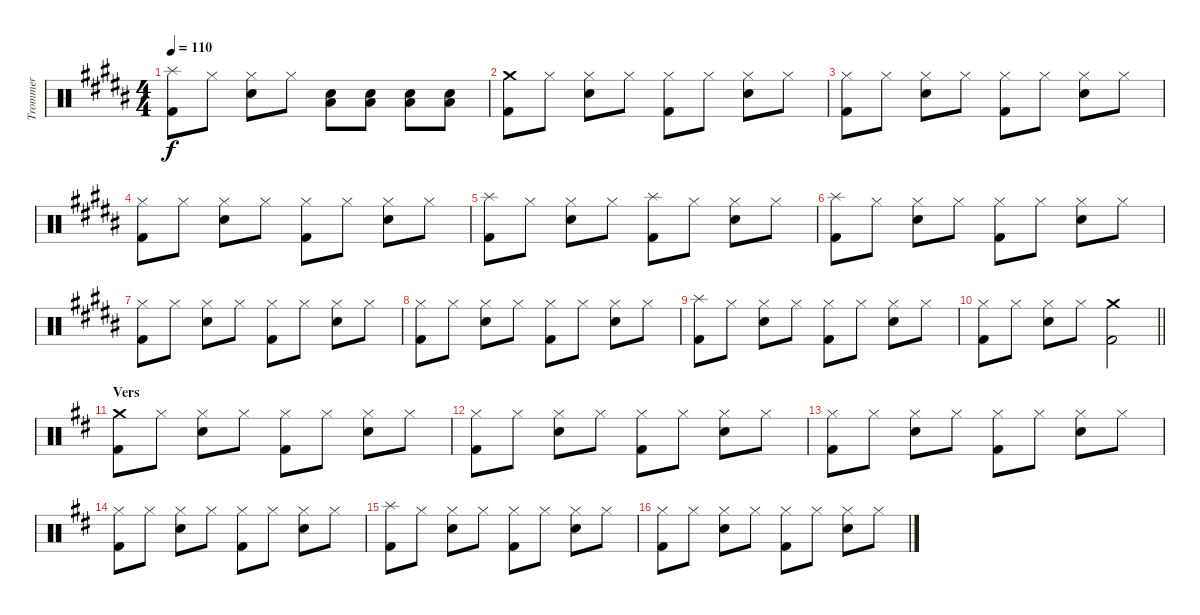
\track ("Trommer" "Trommer") {instrument percussion}
\staff {score}
\articulation defaults
\ts (4 4)
\tempo 110
\clef neutral
\ks b
("Splash (hit)" "Kick (hit) 2").8{dy f} "Hi-Hat (closed)".8 ("Hi-Hat (closed)" "Electric Snare (hit)").8 "Hi-Hat (closed)".8 ("Electric Snare (hit)" "Low Tom (hit)").8 ("Electric Snare (hit)" "Low Tom (hit)").8 ("Electric Snare (hit)" "Low Tom (hit)").8 ("Electric Snare (hit)" "Low Tom (hit)").8 |
("Crash medium (hit)" "Kick (hit) 2").8 "Hi-Hat (closed)".8 ("Hi-Hat (closed)" "Electric Snare (hit)").8 "Hi-Hat (closed)".8 ("Hi-Hat (closed)" "Kick (hit) 2").8 "Hi-Hat (closed)".8 ("Hi-Hat (closed)" "Electric Snare (hit)").8 "Hi-Hat (closed)".8 |
("Hi-Hat (closed)" "Kick (hit) 2").8 "Hi-Hat (closed)".8 ("Hi-Hat (closed)" "Electric Snare (hit)").8 "Hi-Hat (closed)".8 ("Hi-Hat (closed)" "Kick (hit) 2").8 "Hi-Hat (closed)".8 ("Hi-Hat (closed)" "Electric Snare (hit)").8 "Hi-Hat (closed)".8 |
("Hi-Hat (closed)" "Kick (hit) 2").8 "Hi-Hat (closed)".8 ("Hi-Hat (closed)" "Electric Snare (hit)").8 "Hi-Hat (closed)".8 ("Hi-Hat (closed)" "Kick (hit) 2").8 "Hi-Hat (closed)".8 ("Hi-Hat (closed)" "Electric Snare (hit)").8 "Hi-Hat (closed)".8 |
("Splash (hit)" "Kick (hit) 2").8 "Hi-Hat (closed)".8 ("Hi-Hat (closed)" "Electric Snare (hit)").8 "Hi-Hat (closed)".8 ("Splash (hit)" "Kick (hit) 2").8 "Hi-Hat (closed)".8 ("Hi-Hat (closed)" "Electric Snare (hit)").8 "Hi-Hat (closed)".8 |
("Splash (hit)" "Kick (hit) 2").8 "Hi-Hat (closed)".8 ("Hi-Hat (closed)" "Electric Snare (hit)").8 "Hi-Hat (closed)".8 ("Hi-Hat (closed)" "Kick (hit) 2").8 "Hi-Hat (closed)".8 ("Hi-Hat (closed)" "Electric Snare (hit)").8 "Hi-Hat (closed)".8 |
("Hi-Hat (closed)" "Kick (hit) 2").8 "Hi-Hat (closed)".8 ("Hi-Hat (closed)" "Electric Snare (hit)").8 "Hi-Hat (closed)".8 ("Hi-Hat (closed)" "Kick (hit) 2").8 "Hi-Hat (closed)".8 ("Hi-Hat (closed)" "Electric Snare (hit)").8 "Hi-Hat (closed)".8 |
("Hi-Hat (closed)" "Kick (hit) 2").8 "Hi-Hat (closed)".8 ("Hi-Hat (closed)" "Electric Snare (hit)").8 "Hi-Hat (closed)".8 ("Hi-Hat (closed)" "Kick (hit) 2").8 "Hi-Hat (closed)".8 ("Hi-Hat (closed)" "Electric Snare (hit)").8 "Hi-Hat (closed)".8 |
("Splash (hit)" "Kick (hit) 2").8 "Hi-Hat (closed)".8 ("Hi-Hat (closed)" "Electric Snare (hit)").8 "Hi-Hat (closed)".8 ("Hi-Hat (closed)" "Kick (hit) 2").8 "Hi-Hat (closed)".8 ("Hi-Hat (closed)" "Electric Snare (hit)").8 "Hi-Hat (closed)".8 |
\barLineRight lightlight
("Hi-Hat (closed)" "Kick (hit) 2").8 "Hi-Hat (closed)".8 ("Hi-Hat (closed)" "Electric Snare (hit)").8 "Hi-Hat (closed)".8 ("Crash medium (hit)" "Kick (hit) 2").2 |
\section ("" "Vers")
\ks d
("Crash medium (hit)" "Kick (hit) 2").8 "Hi-Hat (closed)".8 ("Hi-Hat (closed)" "Electric Snare (hit)").8 "Hi-Hat (closed)".8 ("Hi-Hat (closed)" "Kick (hit) 2").8 "Hi-Hat (closed)".8 ("Hi-Hat (closed)" "Electric Snare (hit)").8 "Hi-Hat (closed)".8 |
("Hi-Hat (closed)" "Kick (hit) 2").8 "Hi-Hat (closed)".8 ("Hi-Hat (closed)" "Electric Snare (hit)").8 "Hi-Hat (closed)".8 ("Hi-Hat (closed)" "Kick (hit) 2").8 "Hi-Hat (closed)".8 ("Hi-Hat (closed)" "Electric Snare (hit)").8 "Hi-Hat (closed)".8 |
("Hi-Hat (closed)" "Kick (hit) 2").8 "Hi-Hat (closed)".8 ("Hi-Hat (closed)" "Electric Snare (hit)").8 "Hi-Hat (closed)".8 ("Hi-Hat (closed)" "Kick (hit) 2").8 "Hi-Hat (closed)".8 ("Hi-Hat (closed)" "Electric Snare (hit)").8 "Hi-Hat (closed)".8 |
("Hi-Hat (closed)" "Kick (hit) 2").8 "Hi-Hat (closed)".8 ("Hi-Hat (closed)" "Electric Snare (hit)").8 "Hi-Hat (closed)".8 ("Hi-Hat (closed)" "Kick (hit) 2").8 "Hi-Hat (closed)".8 ("Hi-Hat (closed)" "Electric Snare (hit)").8 "Hi-Hat (closed)".8 |
("Splash (hit)" "Kick (hit) 2").8 "Hi-Hat (closed)".8 ("Hi-Hat (closed)" "Electric Snare (hit)").8 "Hi-Hat (closed)".8 ("Hi-Hat (closed)" "Kick (hit) 2").8 "Hi-Hat (closed)".8 ("Hi-Hat (closed)" "Electric Snare (hit)").8 "Hi-Hat (closed)".8 |
("Hi-Hat (closed)" "Kick (hit) 2").8 "Hi-Hat (closed)".8 ("Hi-Hat (closed)" "Electric Snare (hit)").8 "Hi-Hat (closed)".8 ("Hi-Hat (closed)" "Kick (hit) 2").8 "Hi-Hat (closed)".8 ("Hi-Hat (closed)" "Electric Snare (hit)").8 "Hi-Hat (closed)".8
